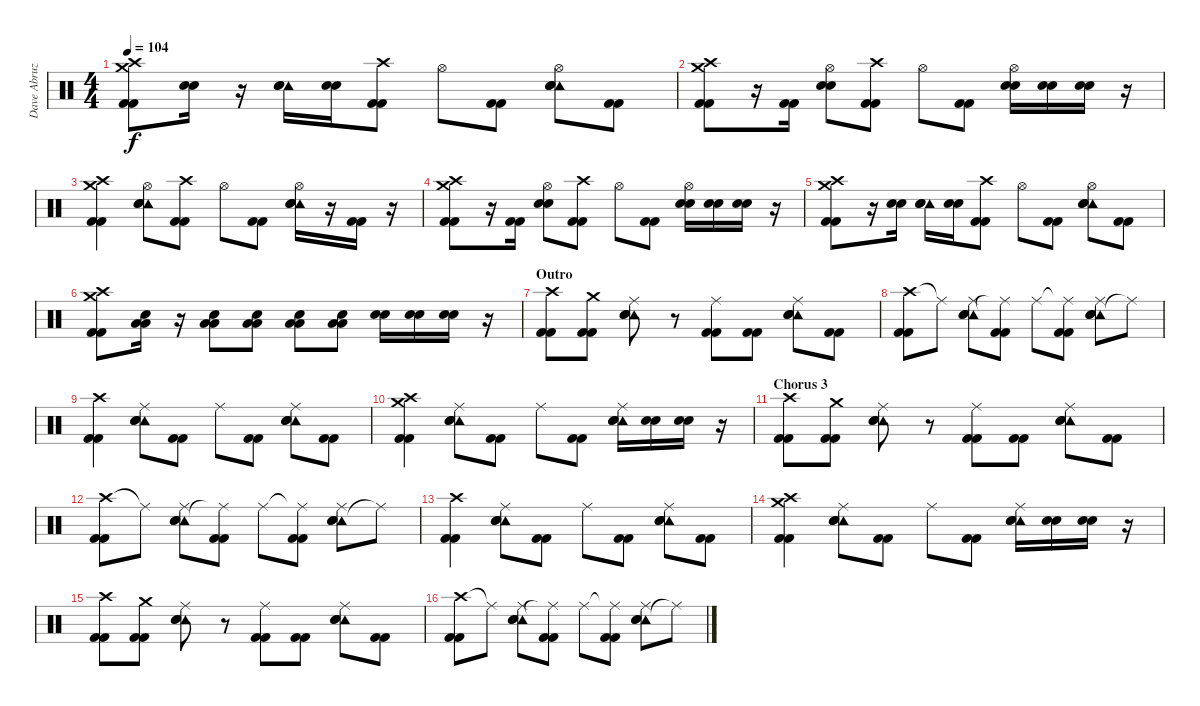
\track ("Dave Abruzzese" "Dave Abruz") {instrument percussion}
\staff {score}
\articulation defaults
\ts (4 4)
\tempo 104
\clef neutral
\ks c
("Crash medium (hit)" "Kick (hit) 2" "Kick (hit) 2" "Crash high (hit)").8{dy f} ("Electric Snare (hit)" "Electric Snare (hit)").16 r.16 ("Tambourine (hit)" "Electric Snare (hit)" "Electric Snare (hit)").16 ("Electric Snare (hit)" "Electric Snare (hit)").16 ("Crash high (hit)" "Kick (hit) 2" "Kick (hit) 2").8 "Hi-Hat (open)".8 ("Kick (hit) 2" "Kick (hit) 2").8 ("Tambourine (hit)" "Electric Snare (hit)" "Electric Snare (hit)" "Hi-Hat (open)").8 ("Kick (hit) 2" "Kick (hit) 2").8 |
("Crash high (hit)" "Kick (hit) 2" "Kick (hit) 2" "Crash medium (hit)").8 r.16 ("Kick (hit) 2" "Kick (hit) 2").16 ("Electric Snare (hit)" "Electric Snare (hit)" "Hi-Hat (open)").8 ("Crash high (hit)" "Kick (hit) 2" "Kick (hit) 2").8 "Hi-Hat (open)".8 ("Kick (hit) 2" "Kick (hit) 2").8 ("Electric Snare (hit)" "Electric Snare (hit)" "Hi-Hat (open)").16 ("Electric Snare (hit)" "Electric Snare (hit)").16 ("Electric Snare (hit)" "Electric Snare (hit)").16 r.16 |
("Crash medium (hit)" "Kick (hit) 2" "Kick (hit) 2" "Crash high (hit)").4 ("Tambourine (hit)" "Electric Snare (hit)" "Electric Snare (hit)" "Hi-Hat (open)").8 ("Crash high (hit)" "Kick (hit) 2" "Kick (hit) 2").8 "Hi-Hat (open)".8 ("Kick (hit) 2" "Kick (hit) 2").8 ("Tambourine (hit)" "Electric Snare (hit)" "Electric Snare (hit)" "Hi-Hat (open)").16 r.16 ("Kick (hit) 2" "Kick (hit) 2").16 r.16 |
("Crash high (hit)" "Kick (hit) 2" "Kick (hit) 2" "Crash medium (hit)").8 r.16 ("Kick (hit) 2" "Kick (hit) 2").16 ("Electric Snare (hit)" "Electric Snare (hit)" "Hi-Hat (open)").8 ("Crash high (hit)" "Kick (hit) 2" "Kick (hit) 2").8 "Hi-Hat (open)".8 ("Kick (hit) 2" "Kick (hit) 2").8 ("Electric Snare (hit)" "Electric Snare (hit)" "Hi-Hat (open)").16 ("Electric Snare (hit)" "Electric Snare (hit)").16 ("Electric Snare (hit)" "Electric Snare (hit)").16 r.16 |
("Crash medium (hit)" "Kick (hit) 2" "Kick (hit) 2" "Crash high (hit)").8 r.16 ("Electric Snare (hit)" "Electric Snare (hit)").16 ("Tambourine (hit)" "Electric Snare (hit)" "Electric Snare (hit)").16 ("Electric Snare (hit)" "Electric Snare (hit)").16 ("Crash high (hit)" "Kick (hit) 2" "Kick (hit) 2").8 "Hi-Hat (open)".8 ("Kick (hit) 2" "Kick (hit) 2").8 ("Tambourine (hit)" "Electric Snare (hit)" "Electric Snare (hit)" "Hi-Hat (open)").8 ("Kick (hit) 2" "Kick (hit) 2").8 |
("Crash high (hit)" "Kick (hit) 2" "Kick (hit) 2" "Crash medium (hit)").8 ("Electric Snare (hit)" "Low Tom (hit)" "Low Tom (hit)").16 r.16 ("Electric Snare (hit)" "Low Tom (hit)" "Low Tom (hit)").8 ("Electric Snare (hit)" "Low Tom (hit)" "Low Tom (hit)").8 ("Electric Snare (hit)" "Low Tom (hit)" "Low Tom (hit)").8 ("Electric Snare (hit)" "Low Tom (hit)" "Low Tom (hit)").8 ("Electric Snare (hit)" "Electric Snare (hit)").16 ("Electric Snare (hit)" "Electric Snare (hit)").16 ("Electric Snare (hit)" "Electric Snare (hit)").16 r.16 |
\section ("" "Outro")
("Crash high (hit)" "Kick (hit) 2" "Kick (hit) 2").8 ("Crash medium (hit)" "Kick (hit) 2" "Kick (hit) 2").8 ("Tambourine (hit)" "Ride (middle)" "Electric Snare (hit)" "Electric Snare (hit)").8 r.8 ("Ride (middle)" "Kick (hit) 2" "Kick (hit) 2").8 ("Kick (hit) 2" "Kick (hit) 2").8 ("Tambourine (hit)" "Ride (middle)" "Electric Snare (hit)" "Electric Snare (hit)").8 ("Kick (hit) 2" "Kick (hit) 2").8 |
("Crash high (hit)" "Kick (hit) 2" "Kick (hit) 2").8 "Ride (middle)"{t}.8 ("Tambourine (hit)" "Ride (middle)" "Electric Snare (hit)" "Electric Snare (hit)").8 ("Ride (middle)"{t} "Kick (hit) 2" "Kick (hit) 2").8 "Ride (middle)".8 ("Ride (middle)"{t} "Kick (hit) 2" "Kick (hit) 2").8 ("Tambourine (hit)" "Ride (middle)" "Electric Snare (hit)" "Electric Snare (hit)").8 "Ride (middle)"{t}.8 |
("Kick (hit) 2" "Kick (hit) 2" "Crash high (hit)").4 ("Tambourine (hit)" "Electric Snare (hit)" "Electric Snare (hit)" "Ride (middle)").8 ("Kick (hit) 2" "Kick (hit) 2").8 "Ride (middle)".8 ("Kick (hit) 2" "Kick (hit) 2").8 ("Tambourine (hit)" "Electric Snare (hit)" "Electric Snare (hit)" "Ride (middle)").8 ("Kick (hit) 2" "Kick (hit) 2").8 |
("Crash medium (hit)" "Kick (hit) 2" "Kick (hit) 2" "Crash high (hit)").4 ("Tambourine (hit)" "Electric Snare (hit)" "Electric Snare (hit)" "Ride (middle)").8 ("Kick (hit) 2" "Kick (hit) 2").8 "Ride (middle)".8 ("Kick (hit) 2" "Kick (hit) 2").8 ("Tambourine (hit)" "Electric Snare (hit)" "Electric Snare (hit)" "Ride (middle)").16 ("Electric Snare (hit)" "Electric Snare (hit)").16 ("Electric Snare (hit)" "Electric Snare (hit)").16 r.16 |
\section ("" "Chorus 3")
("Crash high (hit)" "Kick (hit) 2" "Kick (hit) 2").8 ("Crash medium (hit)" "Kick (hit) 2" "Kick (hit) 2").8 ("Tambourine (hit)" "Ride (middle)" "Electric Snare (hit)" "Electric Snare (hit)").8 r.8 ("Ride (middle)" "Kick (hit) 2" "Kick (hit) 2").8 ("Kick (hit) 2" "Kick (hit) 2").8 ("Tambourine (hit)" "Ride (middle)" "Electric Snare (hit)" "Electric Snare (hit)").8 ("Kick (hit) 2" "Kick (hit) 2").8 |
("Crash high (hit)" "Kick (hit) 2" "Kick (hit) 2").8 "Ride (middle)"{t}.8 ("Tambourine (hit)" "Ride (middle)" "Electric Snare (hit)" "Electric Snare (hit)").8 ("Ride (middle)"{t} "Kick (hit) 2" "Kick (hit) 2").8 "Ride (middle)".8 ("Ride (middle)"{t} "Kick (hit) 2" "Kick (hit) 2").8 ("Tambourine (hit)" "Ride (middle)" "Electric Snare (hit)" "Electric Snare (hit)").8 "Ride (middle)"{t}.8 |
("Kick (hit) 2" "Kick (hit) 2" "Crash high (hit)").4 ("Tambourine (hit)" "Electric Snare (hit)" "Electric Snare (hit)" "Ride (middle)").8 ("Kick (hit) 2" "Kick (hit) 2").8 "Ride (middle)".8 ("Kick (hit) 2" "Kick (hit) 2").8 ("Tambourine (hit)" "Electric Snare (hit)" "Electric Snare (hit)" "Ride (middle)").8 ("Kick (hit) 2" "Kick (hit) 2").8 |
("Crash medium (hit)" "Kick (hit) 2" "Kick (hit) 2" "Crash high (hit)").4 ("Tambourine (hit)" "Electric Snare (hit)" "Electric Snare (hit)" "Ride (middle)").8 ("Kick (hit) 2" "Kick (hit) 2").8 "Ride (middle)".8 ("Kick (hit) 2" "Kick (hit) 2").8 ("Tambourine (hit)" "Electric Snare (hit)" "Electric Snare (hit)" "Ride (middle)").16 ("Electric Snare (hit)" "Electric Snare (hit)").16 ("Electric Snare (hit)" "Electric Snare (hit)").16 r.16 |
("Crash high (hit)" "Kick (hit) 2" "Kick (hit) 2").8 ("Crash medium (hit)" "Kick (hit) 2" "Kick (hit) 2").8 ("Tambourine (hit)" "Ride (middle)" "Electric Snare (hit)" "Electric Snare (hit)").8 r.8 ("Ride (middle)" "Kick (hit) 2" "Kick (hit) 2").8 ("Kick (hit) 2" "Kick (hit) 2").8 ("Tambourine (hit)" "Ride (middle)" "Electric Snare (hit)" "Electric Snare (hit)").8 ("Kick (hit) 2" "Kick (hit) 2").8 |
("Crash high (hit)" "Kick (hit) 2" "Kick (hit) 2").8 "Ride (middle)"{t}.8 ("Tambourine (hit)" "Ride (middle)" "Electric Snare (hit)" "Electric Snare (hit)").8 ("Ride (middle)"{t} "Kick (hit) 2" "Kick (hit) 2").8 "Ride (middle)".8 ("Ride (middle)"{t} "Kick (hit) 2" "Kick (hit) 2").8 ("Tambourine (hit)" "Ride (middle)" "Electric Snare (hit)" "Electric Snare (hit)").8 "Ride (middle)"{t}.8
